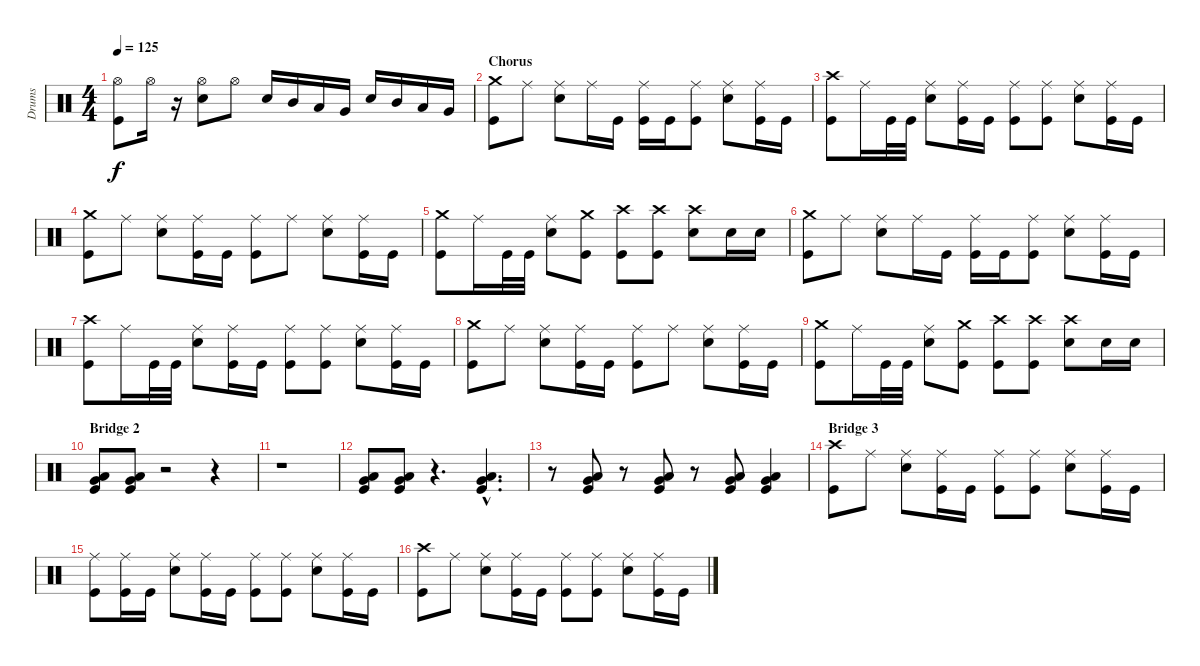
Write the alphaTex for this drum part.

\track ("Drums" "Drums") {instrument percussion}
\staff {score}
\articulation defaults
\ts (4 4)
\tempo 125
\clef neutral
\ks c
("Hi-Hat (open)" "Kick (hit)").8{dy f} "Hi-Hat (open)".16 r.16 ("Hi-Hat (open)" "Electric Snare (hit)").8 "Hi-Hat (open)".8 "Electric Snare (hit)".16 "Mid Tom (hit)".16 "Low Tom (hit)".16 "Very Low Tom (hit)".16 "Electric Snare (hit)".16 "Mid Tom (hit)".16 "Low Tom (hit)".16 "Very Low Tom (hit)".16 |
\section ("" "Chorus")
("Crash medium (hit)" "Kick (hit)").8 "Ride (middle)".8 ("Ride (middle)" "Electric Snare (hit)").8 "Ride (middle)".16 "Kick (hit)".16 ("Ride (middle)" "Kick (hit)").16 "Kick (hit)".16 ("Ride (middle)" "Kick (hit)").8 ("Ride (middle)" "Electric Snare (hit)").8 ("Ride (middle)" "Kick (hit)").16 "Kick (hit)".16 |
("Crash high (hit)" "Kick (hit)").8 "Ride (middle)".16 "Kick (hit)".32 "Kick (hit)".32 ("Ride (middle)" "Electric Snare (hit)").8 ("Ride (middle)" "Kick (hit)").16 "Kick (hit)".16 ("Ride (middle)" "Kick (hit)").8 ("Ride (middle)" "Kick (hit)").8 ("Ride (middle)" "Electric Snare (hit)").8 ("Ride (middle)" "Kick (hit)").16 "Kick (hit)".16 |
("Crash medium (hit)" "Kick (hit)").8 "Ride (middle)".8 ("Ride (middle)" "Electric Snare (hit)").8 ("Ride (middle)" "Kick (hit)").16 "Kick (hit)".16 ("Ride (middle)" "Kick (hit)").8 "Ride (middle)".8 ("Ride (middle)" "Electric Snare (hit)").8 ("Ride (middle)" "Kick (hit)").16 "Kick (hit)".16 |
("Crash medium (hit)" "Kick (hit)").8 "Ride (middle)".16 "Kick (hit)".32 "Kick (hit)".32 ("Ride (middle)" "Electric Snare (hit)").8 ("Crash medium (hit)" "Kick (hit)").8 ("Crash high (hit)" "Kick (hit)").8 ("Crash high (hit)" "Kick (hit)").8 ("Crash high (hit)" "Electric Snare (hit)").8 "Electric Snare (hit)".16 "Electric Snare (hit)".16 |
("Crash medium (hit)" "Kick (hit)").8 "Ride (middle)".8 ("Ride (middle)" "Electric Snare (hit)").8 "Ride (middle)".16 "Kick (hit)".16 ("Ride (middle)" "Kick (hit)").16 "Kick (hit)".16 ("Ride (middle)" "Kick (hit)").8 ("Ride (middle)" "Electric Snare (hit)").8 ("Ride (middle)" "Kick (hit)").16 "Kick (hit)".16 |
("Crash high (hit)" "Kick (hit)").8 "Ride (middle)".16 "Kick (hit)".32 "Kick (hit)".32 ("Ride (middle)" "Electric Snare (hit)").8 ("Ride (middle)" "Kick (hit)").16 "Kick (hit)".16 ("Ride (middle)" "Kick (hit)").8 ("Ride (middle)" "Kick (hit)").8 ("Ride (middle)" "Electric Snare (hit)").8 ("Ride (middle)" "Kick (hit)").16 "Kick (hit)".16 |
("Crash medium (hit)" "Kick (hit)").8 "Ride (middle)".8 ("Ride (middle)" "Electric Snare (hit)").8 ("Ride (middle)" "Kick (hit)").16 "Kick (hit)".16 ("Ride (middle)" "Kick (hit)").8 "Ride (middle)".8 ("Ride (middle)" "Electric Snare (hit)").8 ("Ride (middle)" "Kick (hit)").16 "Kick (hit)".16 |
("Crash medium (hit)" "Kick (hit)").8 "Ride (middle)".16 "Kick (hit)".32 "Kick (hit)".32 ("Ride (middle)" "Electric Snare (hit)").8 ("Crash medium (hit)" "Kick (hit)").8 ("Crash high (hit)" "Kick (hit)").8 ("Crash high (hit)" "Kick (hit)").8 ("Crash high (hit)" "Electric Snare (hit)").8 "Electric Snare (hit)".16 "Electric Snare (hit)".16 |
\section ("" "Bridge 2")
("Low Tom (hit)" "Very Low Tom (hit)" "Kick (hit)").8 ("Low Tom (hit)" "Very Low Tom (hit)" "Kick (hit)").8 r.2 r.4 |
r.1 |
("Low Tom (hit)" "Very Low Tom (hit)" "Kick (hit)").8 ("Low Tom (hit)" "Very Low Tom (hit)" "Kick (hit)").8 r.4{d} ("Very Low Tom (hit)"{hac} "Low Tom (hit)"{hac} "Kick (hit)"{hac}).4{d} |
r.8 ("Low Tom (hit)" "Very Low Tom (hit)" "Kick (hit)").8 r.8 ("Low Tom (hit)" "Very Low Tom (hit)" "Kick (hit)").8 r.8 ("Low Tom (hit)" "Very Low Tom (hit)" "Kick (hit)").8 ("Very Low Tom (hit)" "Low Tom (hit)" "Kick (hit)").4 |
\section ("" "Bridge 3")
("Crash high (hit)" "Kick (hit)").8 "Ride (middle)".8 ("Ride (middle)" "Electric Snare (hit)").8 ("Ride (middle)" "Kick (hit)").16 "Kick (hit)".16 ("Ride (middle)" "Kick (hit)").8 ("Ride (middle)" "Kick (hit)").8 ("Ride (middle)" "Electric Snare (hit)").8 ("Ride (middle)" "Kick (hit)").16 "Kick (hit)".16 |
("Ride (middle)" "Kick (hit)").8 ("Ride (middle)" "Kick (hit)").16 "Kick (hit)".16 ("Ride (middle)" "Electric Snare (hit)").8 ("Ride (middle)" "Kick (hit)").16 "Kick (hit)".16 ("Ride (middle)" "Kick (hit)").8 ("Ride (middle)" "Kick (hit)").8 ("Ride (middle)" "Electric Snare (hit)").8 ("Ride (middle)" "Kick (hit)").16 "Kick (hit)".16 |
("Crash high (hit)" "Kick (hit)").8 "Ride (middle)".8 ("Ride (middle)" "Electric Snare (hit)").8 ("Ride (middle)" "Kick (hit)").16 "Kick (hit)".16 ("Ride (middle)" "Kick (hit)").8 ("Ride (middle)" "Kick (hit)").8 ("Ride (middle)" "Electric Snare (hit)").8 ("Ride (middle)" "Kick (hit)").16 "Kick (hit)".16
